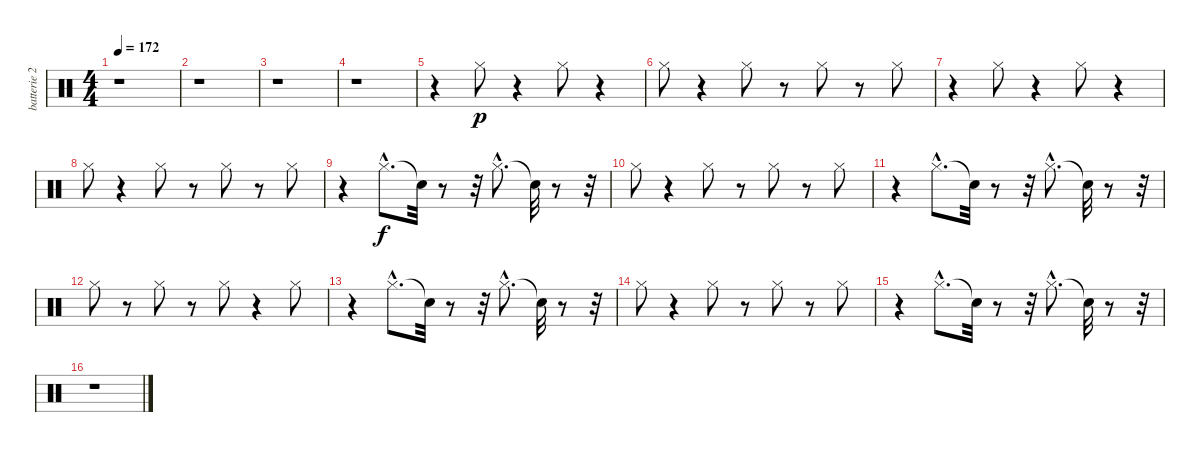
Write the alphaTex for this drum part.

\track ("batterie 2" "batterie 2") {instrument percussion}
\staff {score}
\articulation defaults
\ts (4 4)
\tempo 172
\clef neutral
\ks c
r.1{dy p} |
r.1 |
r.1 |
r.1 |
r.4 "Hi-Hat (closed)".8 r.4 "Hi-Hat (closed)".8 r.4 |
"Hi-Hat (closed)".8 r.4 "Hi-Hat (closed)".8 r.8 "Hi-Hat (closed)".8 r.8 "Hi-Hat (closed)".8 |
r.4 "Hi-Hat (closed)".8 r.4 "Hi-Hat (closed)".8 r.4 |
"Hi-Hat (closed)".8 r.4 "Hi-Hat (closed)".8 r.8 "Hi-Hat (closed)".8 r.8 "Hi-Hat (closed)".8 |
r.4 "Hi-Hat (closed)"{hac}.8{d dy f} "Snare (hit)"{t}.32 r.8 r.32 "Hi-Hat (closed)"{hac}.8{d} "Snare (hit)"{t}.32 r.8 r.32 |
"Hi-Hat (closed)".8 r.4 "Hi-Hat (closed)".8 r.8 "Hi-Hat (closed)".8 r.8 "Hi-Hat (closed)".8 |
r.4 "Hi-Hat (closed)"{hac}.8{d} "Snare (hit)"{t}.32 r.8 r.32 "Hi-Hat (closed)"{hac}.8{d} "Snare (hit)"{t}.32 r.8 r.32 |
"Hi-Hat (closed)".8 r.8 "Hi-Hat (closed)".8 r.8 "Hi-Hat (closed)".8 r.4 "Hi-Hat (closed)".8 |
r.4 "Hi-Hat (closed)"{hac}.8{d} "Snare (hit)"{t}.32 r.8 r.32 "Hi-Hat (closed)"{hac}.8{d} "Snare (hit)"{t}.32 r.8 r.32 |
"Hi-Hat (closed)".8 r.4 "Hi-Hat (closed)".8 r.8 "Hi-Hat (closed)".8 r.8 "Hi-Hat (closed)".8 |
r.4 "Hi-Hat (closed)"{hac}.8{d} "Snare (hit)"{t}.32 r.8 r.32 "Hi-Hat (closed)"{hac}.8{d} "Snare (hit)"{t}.32 r.8 r.32 |
r.1
